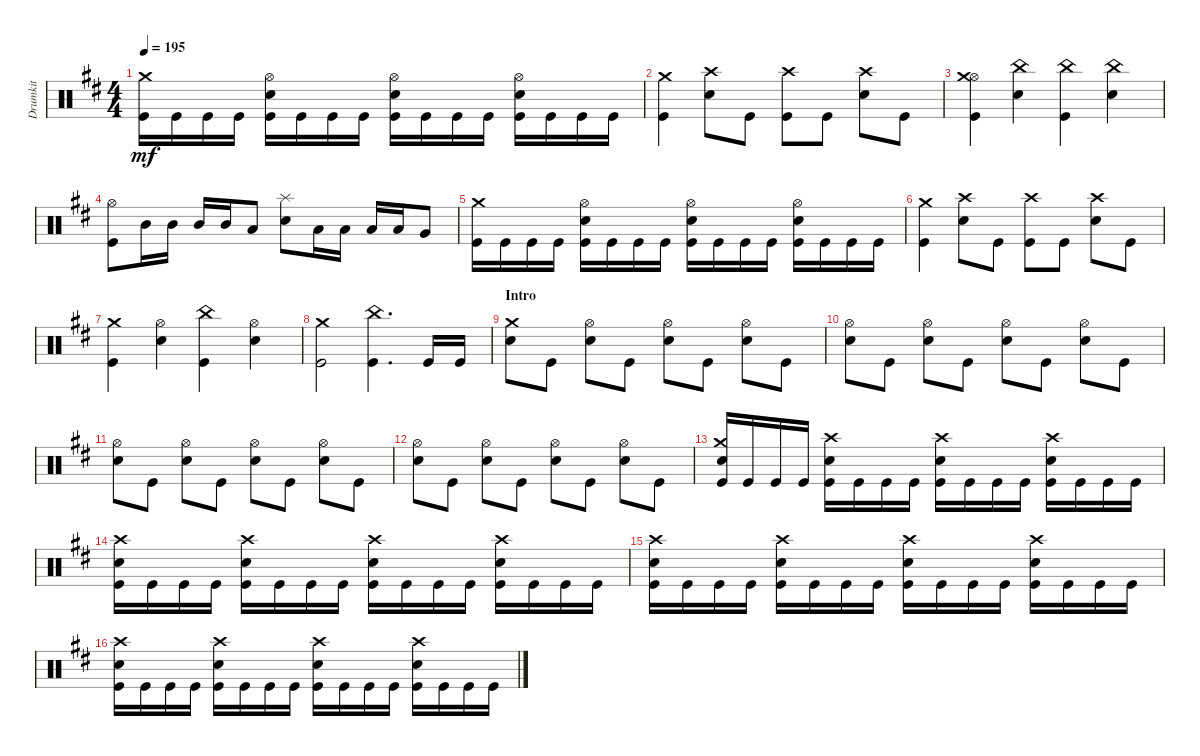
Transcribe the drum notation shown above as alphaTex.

\track ("Drumkit" "Drumkit") {instrument percussion}
\staff {score}
\articulation defaults
\ts (4 4)
\tempo 195
\clef neutral
\ks bminor
("Kick (hit)" "Crash medium (hit)").16{dy mf} "Kick (hit)".16 "Kick (hit)".16 "Kick (hit)".16 ("Kick (hit)" "Snare (hit) 2" "Hi-Hat (open)").16 "Kick (hit)".16 "Kick (hit)".16 "Kick (hit)".16 ("Kick (hit)" "Snare (hit) 2" "Hi-Hat (open)").16 "Kick (hit)".16 "Kick (hit)".16 "Kick (hit)".16 ("Kick (hit)" "Snare (hit) 2" "Hi-Hat (open)").16 "Kick (hit)".16 "Kick (hit)".16 "Kick (hit)".16 |
("Kick (hit)" "Crash medium (hit)").4 ("Snare (hit) 2" "Crash high (hit)").8 "Kick (hit)".8 ("Kick (hit)" "Crash high (hit)").8 "Kick (hit)".8 ("Snare (hit) 2" "Crash high (hit)").8 "Kick (hit)".8 |
("Kick (hit)" "Hi-Hat (open)" "Crash medium (hit)").4 ("Snare (hit) 2" "China (hit)").4 ("Kick (hit)" "China (hit)").4 ("Snare (hit) 2" "China (hit)").4 |
("Kick (hit)" "Hi-Hat (open)").8 "Mid Tom (hit)".16 "Mid Tom (hit)".16 "Mid Tom (hit)".16 "Mid Tom (hit)".16 "Low Tom (hit)".8 ("Snare (hit) 2" "Splash (hit)").8 "Low Tom (hit)".16 "Low Tom (hit)".16 "Low Tom (hit)".16 "Low Tom (hit)".16 "Very Low Tom (hit)".8 |
("Kick (hit)" "Crash medium (hit)").16 "Kick (hit)".16 "Kick (hit)".16 "Kick (hit)".16 ("Kick (hit)" "Snare (hit) 2" "Hi-Hat (open)").16 "Kick (hit)".16 "Kick (hit)".16 "Kick (hit)".16 ("Kick (hit)" "Snare (hit) 2" "Hi-Hat (open)").16 "Kick (hit)".16 "Kick (hit)".16 "Kick (hit)".16 ("Kick (hit)" "Snare (hit) 2" "Hi-Hat (open)").16 "Kick (hit)".16 "Kick (hit)".16 "Kick (hit)".16 |
("Kick (hit)" "Crash medium (hit)").4 ("Snare (hit) 2" "Crash high (hit)").8 "Kick (hit)".8 ("Kick (hit)" "Crash high (hit)").8 "Kick (hit)".8 ("Snare (hit) 2" "Crash high (hit)").8 "Kick (hit)".8 |
("Kick (hit)" "Crash medium (hit)").4 ("Snare (hit) 2" "Hi-Hat (open)").4 ("Kick (hit)" "China (hit)").4 ("Snare (hit) 2" "Hi-Hat (open)").4 |
("Kick (hit)" "Crash medium (hit)").2 ("Kick (hit)" "China (hit)").4{d} "Kick (hit)".16 "Kick (hit)".16 |
\section ("" "Intro")
("Crash medium (hit)" "Snare (hit) 2").8 "Kick (hit)".8 ("Snare (hit) 2" "Hi-Hat (open)").8 "Kick (hit)".8 ("Snare (hit) 2" "Hi-Hat (open)").8 "Kick (hit)".8 ("Snare (hit) 2" "Hi-Hat (open)").8 "Kick (hit)".8 |
("Snare (hit) 2" "Hi-Hat (open)").8 "Kick (hit)".8 ("Snare (hit) 2" "Hi-Hat (open)").8 "Kick (hit)".8 ("Snare (hit) 2" "Hi-Hat (open)").8 "Kick (hit)".8 ("Snare (hit) 2" "Hi-Hat (open)").8 "Kick (hit)".8 |
("Snare (hit) 2" "Hi-Hat (open)").8 "Kick (hit)".8 ("Snare (hit) 2" "Hi-Hat (open)").8 "Kick (hit)".8 ("Snare (hit) 2" "Hi-Hat (open)").8 "Kick (hit)".8 ("Snare (hit) 2" "Hi-Hat (open)").8 "Kick (hit)".8 |
("Snare (hit) 2" "Hi-Hat (open)").8 "Kick (hit)".8 ("Snare (hit) 2" "Hi-Hat (open)").8 "Kick (hit)".8 ("Snare (hit) 2" "Hi-Hat (open)").8 "Kick (hit)".8 ("Snare (hit) 2" "Hi-Hat (open)").8 "Kick (hit)".8 |
("Kick (hit)" "Crash medium (hit)" "Snare (hit) 2").16 "Kick (hit)".16 "Kick (hit)".16 "Kick (hit)".16 ("Kick (hit)" "Snare (hit) 2" "Crash high (hit)").16 "Kick (hit)".16 "Kick (hit)".16 "Kick (hit)".16 ("Kick (hit)" "Snare (hit) 2" "Crash high (hit)").16 "Kick (hit)".16 "Kick (hit)".16 "Kick (hit)".16 ("Kick (hit)" "Snare (hit) 2" "Crash high (hit)").16 "Kick (hit)".16 "Kick (hit)".16 "Kick (hit)".16 |
("Kick (hit)" "Crash high (hit)" "Snare (hit) 2").16 "Kick (hit)".16 "Kick (hit)".16 "Kick (hit)".16 ("Kick (hit)" "Snare (hit) 2" "Crash high (hit)").16 "Kick (hit)".16 "Kick (hit)".16 "Kick (hit)".16 ("Kick (hit)" "Snare (hit) 2" "Crash high (hit)").16 "Kick (hit)".16 "Kick (hit)".16 "Kick (hit)".16 ("Kick (hit)" "Snare (hit) 2" "Crash high (hit)").16 "Kick (hit)".16 "Kick (hit)".16 "Kick (hit)".16 |
("Kick (hit)" "Crash high (hit)" "Snare (hit) 2").16 "Kick (hit)".16 "Kick (hit)".16 "Kick (hit)".16 ("Kick (hit)" "Snare (hit) 2" "Crash high (hit)").16 "Kick (hit)".16 "Kick (hit)".16 "Kick (hit)".16 ("Kick (hit)" "Snare (hit) 2" "Crash high (hit)").16 "Kick (hit)".16 "Kick (hit)".16 "Kick (hit)".16 ("Kick (hit)" "Snare (hit) 2" "Crash high (hit)").16 "Kick (hit)".16 "Kick (hit)".16 "Kick (hit)".16 |
("Kick (hit)" "Crash high (hit)" "Snare (hit) 2").16 "Kick (hit)".16 "Kick (hit)".16 "Kick (hit)".16 ("Kick (hit)" "Snare (hit) 2" "Crash high (hit)").16 "Kick (hit)".16 "Kick (hit)".16 "Kick (hit)".16 ("Kick (hit)" "Snare (hit) 2" "Crash high (hit)").16 "Kick (hit)".16 "Kick (hit)".16 "Kick (hit)".16 ("Kick (hit)" "Snare (hit) 2" "Crash high (hit)").16 "Kick (hit)".16 "Kick (hit)".16 "Kick (hit)".16
